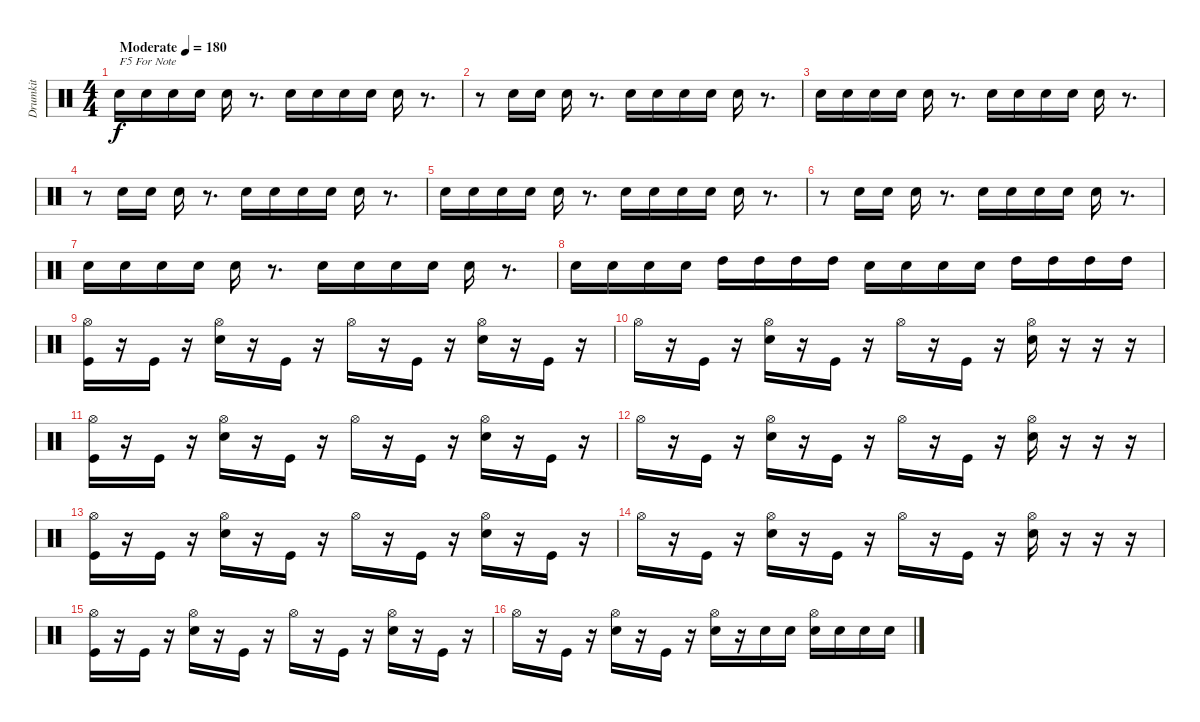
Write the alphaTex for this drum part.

\track ("Drumkit" "Drumkit") {instrument percussion}
\staff {score}
\articulation defaults
\ts (4 4)
\tempo (180 "Moderate")
\clef neutral
\ks c "Snare (hit) 2".16{txt "F5 For Note" dy f} "Snare (hit) 2".16 "Snare (hit) 2".16 "Snare (hit) 2".16 "Snare (hit) 2".16
r.8{d} "Snare (hit) 2".16 "Snare (hit) 2".16 "Snare (hit) 2".16 "Snare (hit) 2".16 "Snare (hit) 2".16 r.8{d} |
r.8 "Snare (hit) 2".16 "Snare (hit) 2".16 "Snare (hit) 2".16 r.8{d} "Snare (hit) 2".16 "Snare (hit) 2".16 "Snare (hit) 2".16 "Snare (hit) 2".16 "Snare (hit) 2".16 r.8{d} |
"Snare (hit) 2".16 "Snare (hit) 2".16 "Snare (hit) 2".16 "Snare (hit) 2".16 "Snare (hit) 2".16 r.8{d} "Snare (hit) 2".16 "Snare (hit) 2".16 "Snare (hit) 2".16 "Snare (hit) 2".16 "Snare (hit) 2".16 r.8{d} |
r.8 "Snare (hit) 2".16 "Snare (hit) 2".16 "Snare (hit) 2".16 r.8{d} "Snare (hit) 2".16 "Snare (hit) 2".16 "Snare (hit) 2".16 "Snare (hit) 2".16 "Snare (hit) 2".16 r.8{d} |
"Snare (hit) 2".16 "Snare (hit) 2".16 "Snare (hit) 2".16 "Snare (hit) 2".16 "Snare (hit) 2".16 r.8{d} "Snare (hit) 2".16 "Snare (hit) 2".16 "Snare (hit) 2".16 "Snare (hit) 2".16 "Snare (hit) 2".16 r.8{d} |
r.8 "Snare (hit) 2".16 "Snare (hit) 2".16 "Snare (hit) 2".16 r.8{d} "Snare (hit) 2".16 "Snare (hit) 2".16 "Snare (hit) 2".16 "Snare (hit) 2".16 "Snare (hit) 2".16 r.8{d} |
"Snare (hit) 2".16 "Snare (hit) 2".16 "Snare (hit) 2".16 "Snare (hit) 2".16 "Snare (hit) 2".16 r.8{d} "Snare (hit) 2".16 "Snare (hit) 2".16 "Snare (hit) 2".16 "Snare (hit) 2".16 "Snare (hit) 2".16 r.8{d} |
"Snare (hit) 2".16 "Snare (hit) 2".16 "Snare (hit) 2".16 "Snare (hit) 2".16 "High Tom (hit)".16 "High Tom (hit)".16 "High Tom (hit)".16 "High Tom (hit)".16 "Snare (hit) 2".16 "Snare (hit) 2".16 "Snare (hit) 2".16 "Snare (hit) 2".16 "High Tom (hit)".16 "High Tom (hit)".16 "High Tom (hit)".16 "High Tom (hit)".16 |
("Hi-Hat (open)" "Kick (hit)").16 r.16 "Kick (hit)".16 r.16 ("Hi-Hat (open)" "Snare (hit) 2").16 r.16 "Kick (hit)".16 r.16 "Hi-Hat (open)".16 r.16 "Kick (hit)".16 r.16 ("Hi-Hat (open)" "Snare (hit) 2").16 r.16 "Kick (hit)".16 r.16 |
"Hi-Hat (open)".16 r.16 "Kick (hit)".16 r.16 ("Hi-Hat (open)" "Snare (hit) 2").16 r.16 "Kick (hit)".16 r.16 "Hi-Hat (open)".16 r.16 "Kick (hit)".16 r.16 ("Hi-Hat (open)" "Snare (hit) 2").16 r.16 r.16 r.16 |
("Hi-Hat (open)" "Kick (hit)").16 r.16 "Kick (hit)".16 r.16 ("Hi-Hat (open)" "Snare (hit) 2").16 r.16 "Kick (hit)".16 r.16 "Hi-Hat (open)".16 r.16 "Kick (hit)".16 r.16 ("Hi-Hat (open)" "Snare (hit) 2").16 r.16 "Kick (hit)".16 r.16 |
"Hi-Hat (open)".16 r.16 "Kick (hit)".16 r.16 ("Hi-Hat (open)" "Snare (hit) 2").16 r.16 "Kick (hit)".16 r.16 "Hi-Hat (open)".16 r.16 "Kick (hit)".16 r.16 ("Hi-Hat (open)" "Snare (hit) 2").16 r.16 r.16 r.16 |
("Hi-Hat (open)" "Kick (hit)").16 r.16 "Kick (hit)".16 r.16 ("Hi-Hat (open)" "Snare (hit) 2").16 r.16 "Kick (hit)".16 r.16 "Hi-Hat (open)".16 r.16 "Kick (hit)".16 r.16 ("Hi-Hat (open)" "Snare (hit) 2").16 r.16 "Kick (hit)".16 r.16 |
"Hi-Hat (open)".16 r.16 "Kick (hit)".16 r.16 ("Hi-Hat (open)" "Snare (hit) 2").16 r.16 "Kick (hit)".16 r.16 "Hi-Hat (open)".16 r.16 "Kick (hit)".16 r.16 ("Hi-Hat (open)" "Snare (hit) 2").16 r.16 r.16 r.16 |
("Hi-Hat (open)" "Kick (hit)").16 r.16 "Kick (hit)".16 r.16 ("Hi-Hat (open)" "Snare (hit) 2").16 r.16 "Kick (hit)".16 r.16 "Hi-Hat (open)".16 r.16 "Kick (hit)".16 r.16 ("Hi-Hat (open)" "Snare (hit) 2").16 r.16 "Kick (hit)".16 r.16 |
"Hi-Hat (open)".16 r.16 "Kick (hit)".16 r.16 ("Hi-Hat (open)" "Snare (hit) 2").16 r.16 "Kick (hit)".16 r.16 ("Hi-Hat (open)" "Snare (hit) 2").16 r.16 "Snare (hit) 2".16 "Snare (hit) 2".16 ("Hi-Hat (open)" "Snare (hit) 2").16 "Snare (hit) 2".16 "Snare (hit) 2".16 "Snare (hit) 2".16
